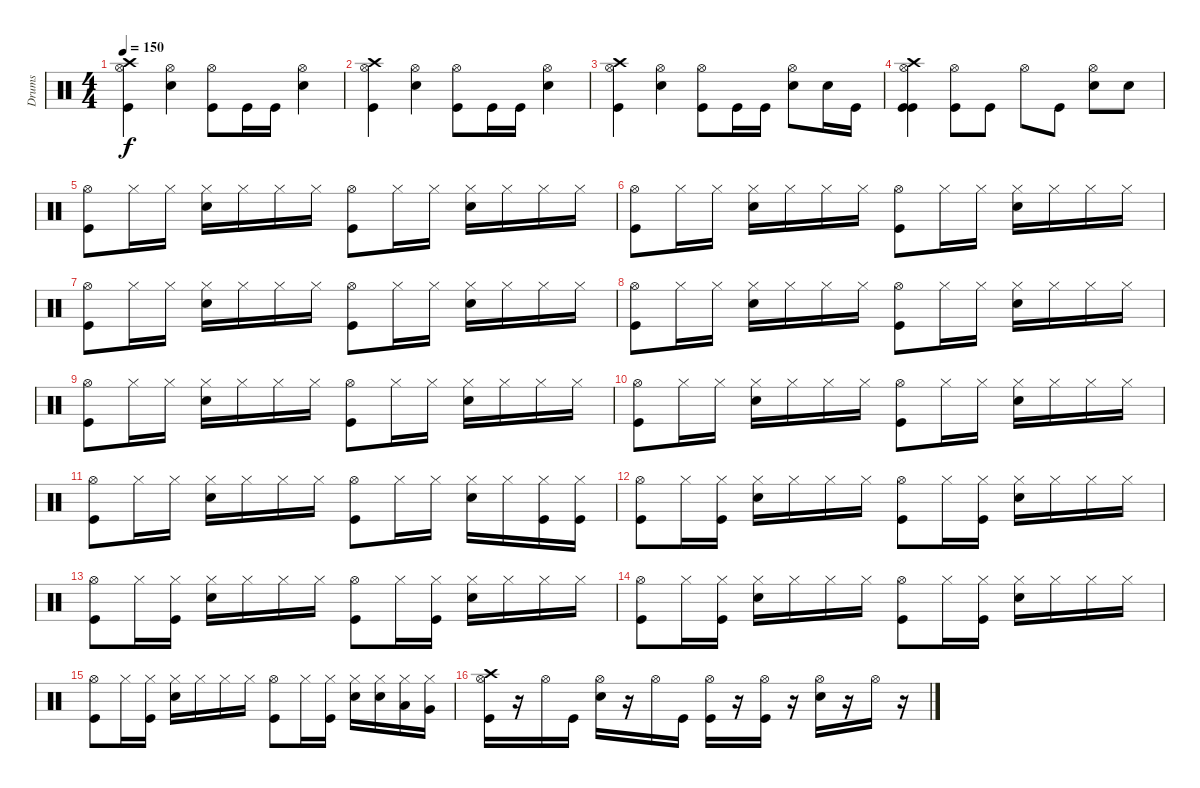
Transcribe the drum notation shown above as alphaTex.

\track ("Drums" "Drums") {instrument percussion}
\staff {score}
\articulation defaults
\ts (4 4)
\tempo 150
\clef neutral
\ks c
("Hi-Hat (open)" "Crash high (hit)" "Kick (hit)").4{dy f} ("Hi-Hat (open)" "Electric Snare (hit)").4 ("Hi-Hat (open)" "Kick (hit)").8 "Kick (hit)".16 "Kick (hit)".16 ("Hi-Hat (open)" "Electric Snare (hit)").4 |
("Hi-Hat (open)" "Crash high (hit)" "Kick (hit)").4 ("Hi-Hat (open)" "Electric Snare (hit)").4 ("Hi-Hat (open)" "Kick (hit)").8 "Kick (hit)".16 "Kick (hit)".16 ("Hi-Hat (open)" "Electric Snare (hit)").4 |
("Hi-Hat (open)" "Crash high (hit)" "Kick (hit)").4 ("Hi-Hat (open)" "Electric Snare (hit)").4 ("Hi-Hat (open)" "Kick (hit)").8 "Kick (hit)".16 "Kick (hit)".16 ("Hi-Hat (open)" "Electric Snare (hit)").8 "Electric Snare (hit)".16 "Kick (hit)".16 |
("Crash high (hit)" "Hi-Hat (open)" "Kick (hit)" "Kick (hit)").4 ("Hi-Hat (open)" "Kick (hit)").8 "Kick (hit)".8 "Hi-Hat (open)".8 "Kick (hit)".8 ("Hi-Hat (open)" "Electric Snare (hit)").8 "Electric Snare (hit)".8 |
("Hi-Hat (open)" "Kick (hit)").8 "Hi-Hat (closed)".16 "Hi-Hat (closed)".16 ("Hi-Hat (closed)" "Electric Snare (hit)").16 "Hi-Hat (closed)".16 "Hi-Hat (closed)".16 "Hi-Hat (closed)".16 ("Hi-Hat (open)" "Kick (hit)").8 "Hi-Hat (closed)".16 "Hi-Hat (closed)".16 ("Hi-Hat (closed)" "Electric Snare (hit)").16 "Hi-Hat (closed)".16 "Hi-Hat (closed)".16 "Hi-Hat (closed)".16 |
("Hi-Hat (open)" "Kick (hit)").8 "Hi-Hat (closed)".16 "Hi-Hat (closed)".16 ("Hi-Hat (closed)" "Electric Snare (hit)").16 "Hi-Hat (closed)".16 "Hi-Hat (closed)".16 "Hi-Hat (closed)".16 ("Hi-Hat (open)" "Kick (hit)").8 "Hi-Hat (closed)".16 "Hi-Hat (closed)".16 ("Hi-Hat (closed)" "Electric Snare (hit)").16 "Hi-Hat (closed)".16 "Hi-Hat (closed)".16 "Hi-Hat (closed)".16 |
("Hi-Hat (open)" "Kick (hit)").8 "Hi-Hat (closed)".16 "Hi-Hat (closed)".16 ("Hi-Hat (closed)" "Electric Snare (hit)").16 "Hi-Hat (closed)".16 "Hi-Hat (closed)".16 "Hi-Hat (closed)".16 ("Hi-Hat (open)" "Kick (hit)").8 "Hi-Hat (closed)".16 "Hi-Hat (closed)".16 ("Hi-Hat (closed)" "Electric Snare (hit)").16 "Hi-Hat (closed)".16 "Hi-Hat (closed)".16 "Hi-Hat (closed)".16 |
("Hi-Hat (open)" "Kick (hit)").8 "Hi-Hat (closed)".16 "Hi-Hat (closed)".16 ("Hi-Hat (closed)" "Electric Snare (hit)").16 "Hi-Hat (closed)".16 "Hi-Hat (closed)".16 "Hi-Hat (closed)".16 ("Hi-Hat (open)" "Kick (hit)").8 "Hi-Hat (closed)".16 "Hi-Hat (closed)".16 ("Hi-Hat (closed)" "Electric Snare (hit)").16 "Hi-Hat (closed)".16 "Hi-Hat (closed)".16 "Hi-Hat (closed)".16 |
("Hi-Hat (open)" "Kick (hit)").8 "Hi-Hat (closed)".16 "Hi-Hat (closed)".16 ("Hi-Hat (closed)" "Electric Snare (hit)").16 "Hi-Hat (closed)".16 "Hi-Hat (closed)".16 "Hi-Hat (closed)".16 ("Hi-Hat (open)" "Kick (hit)").8 "Hi-Hat (closed)".16 "Hi-Hat (closed)".16 ("Hi-Hat (closed)" "Electric Snare (hit)").16 "Hi-Hat (closed)".16 "Hi-Hat (closed)".16 "Hi-Hat (closed)".16 |
("Hi-Hat (open)" "Kick (hit)").8 "Hi-Hat (closed)".16 "Hi-Hat (closed)".16 ("Hi-Hat (closed)" "Electric Snare (hit)").16 "Hi-Hat (closed)".16 "Hi-Hat (closed)".16 "Hi-Hat (closed)".16 ("Hi-Hat (open)" "Kick (hit)").8 "Hi-Hat (closed)".16 "Hi-Hat (closed)".16 ("Hi-Hat (closed)" "Electric Snare (hit)").16 "Hi-Hat (closed)".16 "Hi-Hat (closed)".16 "Hi-Hat (closed)".16 |
("Hi-Hat (open)" "Kick (hit)").8 "Hi-Hat (closed)".16 "Hi-Hat (closed)".16 ("Hi-Hat (closed)" "Electric Snare (hit)").16 "Hi-Hat (closed)".16 "Hi-Hat (closed)".16 "Hi-Hat (closed)".16 ("Hi-Hat (open)" "Kick (hit)").8 "Hi-Hat (closed)".16 "Hi-Hat (closed)".16 ("Hi-Hat (closed)" "Electric Snare (hit)").16 "Hi-Hat (closed)".16 ("Hi-Hat (closed)" "Kick (hit)").16 ("Hi-Hat (closed)" "Kick (hit)").16 |
("Hi-Hat (open)" "Kick (hit)").8 "Hi-Hat (closed)".16 ("Hi-Hat (closed)" "Kick (hit)").16 ("Hi-Hat (closed)" "Electric Snare (hit)").16 "Hi-Hat (closed)".16 "Hi-Hat (closed)".16 "Hi-Hat (closed)".16 ("Hi-Hat (open)" "Kick (hit)").8 "Hi-Hat (closed)".16 ("Hi-Hat (closed)" "Kick (hit)").16 ("Hi-Hat (closed)" "Electric Snare (hit)").16 "Hi-Hat (closed)".16 "Hi-Hat (closed)".16 "Hi-Hat (closed)".16 |
("Hi-Hat (open)" "Kick (hit)").8 "Hi-Hat (closed)".16 ("Hi-Hat (closed)" "Kick (hit)").16 ("Hi-Hat (closed)" "Electric Snare (hit)").16 "Hi-Hat (closed)".16 "Hi-Hat (closed)".16 "Hi-Hat (closed)".16 ("Hi-Hat (open)" "Kick (hit)").8 "Hi-Hat (closed)".16 ("Hi-Hat (closed)" "Kick (hit)").16 ("Hi-Hat (closed)" "Electric Snare (hit)").16 "Hi-Hat (closed)".16 "Hi-Hat (closed)".16 "Hi-Hat (closed)".16 |
("Hi-Hat (open)" "Kick (hit)").8 "Hi-Hat (closed)".16 ("Hi-Hat (closed)" "Kick (hit)").16 ("Hi-Hat (closed)" "Electric Snare (hit)").16 "Hi-Hat (closed)".16 "Hi-Hat (closed)".16 "Hi-Hat (closed)".16 ("Hi-Hat (open)" "Kick (hit)").8 "Hi-Hat (closed)".16 ("Hi-Hat (closed)" "Kick (hit)").16 ("Hi-Hat (closed)" "Electric Snare (hit)").16 "Hi-Hat (closed)".16 "Hi-Hat (closed)".16 "Hi-Hat (closed)".16 |
("Hi-Hat (open)" "Kick (hit)").8 "Hi-Hat (closed)".16 ("Hi-Hat (closed)" "Kick (hit)").16 ("Hi-Hat (closed)" "Electric Snare (hit)").16 "Hi-Hat (closed)".16 "Hi-Hat (closed)".16 "Hi-Hat (closed)".16 ("Hi-Hat (open)" "Kick (hit)").8 "Hi-Hat (closed)".16 ("Hi-Hat (closed)" "Kick (hit)").16 ("Hi-Hat (closed)" "Electric Snare (hit)").16 ("Hi-Hat (closed)" "Electric Snare (hit)").16 ("Hi-Hat (closed)" "Low Tom (hit)").16 ("Hi-Hat (closed)" "Very Low Tom (hit)").16 |
("Crash high (hit)" "Hi-Hat (open)" "Kick (hit)").16 r.16 "Hi-Hat (open)".16 "Kick (hit)".16 ("Hi-Hat (open)" "Electric Snare (hit)").16 r.16 "Hi-Hat (open)".16 "Kick (hit)".16 ("Hi-Hat (open)" "Kick (hit)").16 r.16 ("Hi-Hat (open)" "Kick (hit)").16 r.16 ("Hi-Hat (open)" "Electric Snare (hit)").16 r.16 "Hi-Hat (open)".16 r.16
